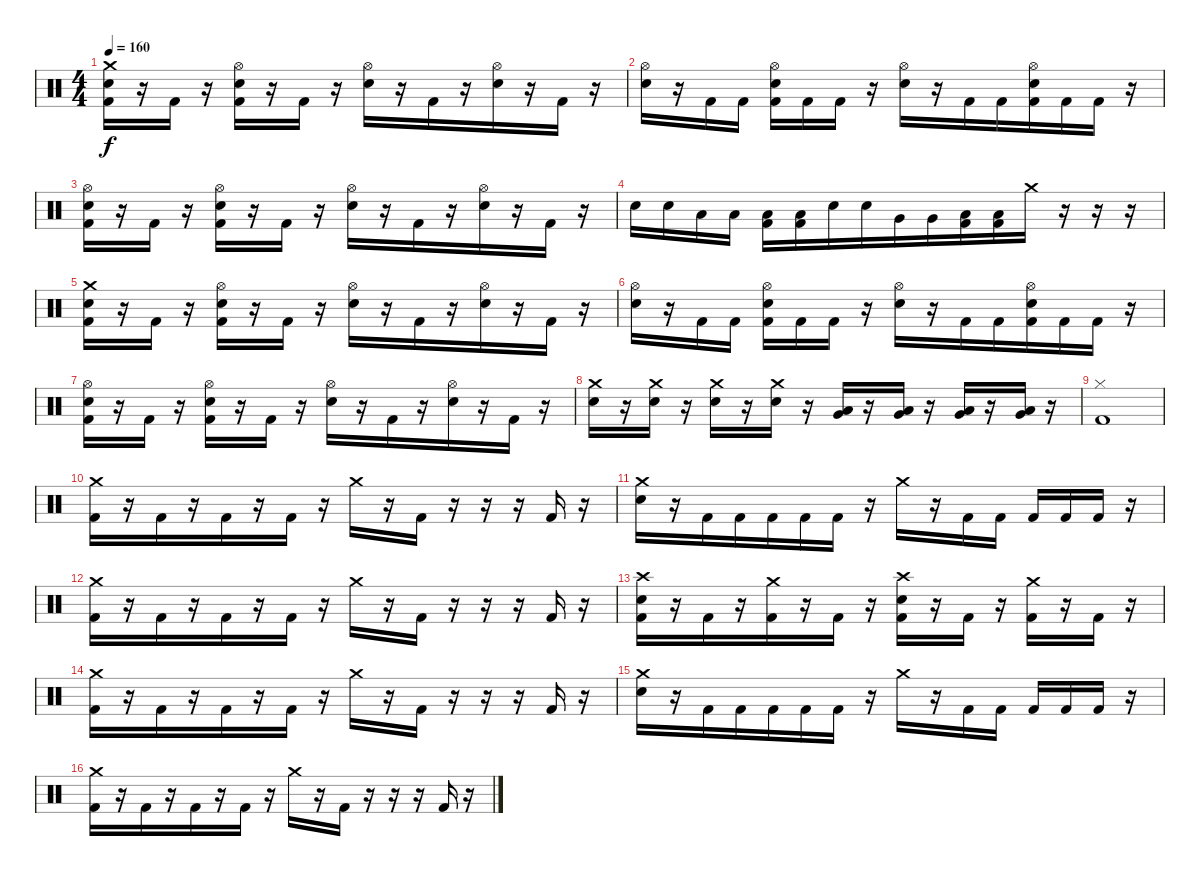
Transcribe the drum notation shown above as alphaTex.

\track "" {instrument percussion}
\staff {score}
\articulation defaults
\ts (4 4)
\tempo 160
\clef neutral
\ks c
("Crash medium (hit)" "Electric Snare (hit)" "Kick (hit) 2").16{dy f} r.16{beam merge} "Kick (hit) 2".16 r.16 ("Hi-Hat (open)" "Electric Snare (hit)" "Kick (hit) 2").16 r.16 "Kick (hit) 2".16 r.16{beam merge} ("Hi-Hat (open)" "Electric Snare (hit)").16 r.16{beam merge} "Kick (hit) 2".16{beam merge} r.16{beam merge} ("Hi-Hat (open)" "Electric Snare (hit)").16 r.16{beam merge} "Kick (hit) 2".16 r.16 |
("Hi-Hat (open)" "Electric Snare (hit)").16 r.16{beam merge} "Kick (hit) 2".16 "Kick (hit) 2".16 ("Hi-Hat (open)" "Electric Snare (hit)" "Kick (hit) 2").16 "Kick (hit) 2".16 "Kick (hit) 2".16 r.16{beam merge} ("Hi-Hat (open)" "Electric Snare (hit)").16 r.16{beam merge} "Kick (hit) 2".16{beam merge} "Kick (hit) 2".16{beam merge} ("Hi-Hat (open)" "Electric Snare (hit)" "Kick (hit) 2").16 "Kick (hit) 2".16{beam merge} "Kick (hit) 2".16 r.16 |
("Hi-Hat (open)" "Electric Snare (hit)" "Kick (hit) 2").16 r.16{beam merge} "Kick (hit) 2".16 r.16 ("Hi-Hat (open)" "Electric Snare (hit)" "Kick (hit) 2").16 r.16 "Kick (hit) 2".16 r.16{beam merge} ("Hi-Hat (open)" "Electric Snare (hit)").16 r.16{beam merge} "Kick (hit) 2".16{beam merge} r.16{beam merge} ("Hi-Hat (open)" "Electric Snare (hit)").16 r.16{beam merge} "Kick (hit) 2".16 r.16 |
"Electric Snare (hit)".16 "Electric Snare (hit)".16{beam merge} "Low Floor Tom (hit)".16 "Low Floor Tom (hit)".16 ("Low Floor Tom (hit)" "Kick (hit) 2").16 ("Low Floor Tom (hit)" "Kick (hit) 2").16 "Electric Snare (hit)".16 "Electric Snare (hit)".16{beam merge} "Very Low Tom (hit)".16 "Very Low Tom (hit)".16{beam merge} ("Low Floor Tom (hit)" "Kick (hit) 2").16{beam merge} ("Low Floor Tom (hit)" "Kick (hit) 2").16{beam merge} "Crash medium (hit)".16 r.16{beam merge} r.16 r.16 |
("Crash medium (hit)" "Electric Snare (hit)" "Kick (hit) 2").16 r.16{beam merge} "Kick (hit) 2".16 r.16 ("Hi-Hat (open)" "Electric Snare (hit)" "Kick (hit) 2").16 r.16 "Kick (hit) 2".16 r.16{beam merge} ("Hi-Hat (open)" "Electric Snare (hit)").16 r.16{beam merge} "Kick (hit) 2".16{beam merge} r.16{beam merge} ("Hi-Hat (open)" "Electric Snare (hit)").16 r.16{beam merge} "Kick (hit) 2".16 r.16 |
("Hi-Hat (open)" "Electric Snare (hit)").16 r.16{beam merge} "Kick (hit) 2".16 "Kick (hit) 2".16 ("Hi-Hat (open)" "Electric Snare (hit)" "Kick (hit) 2").16 "Kick (hit) 2".16 "Kick (hit) 2".16 r.16{beam merge} ("Hi-Hat (open)" "Electric Snare (hit)").16 r.16{beam merge} "Kick (hit) 2".16{beam merge} "Kick (hit) 2".16{beam merge} ("Hi-Hat (open)" "Electric Snare (hit)" "Kick (hit) 2").16 "Kick (hit) 2".16{beam merge} "Kick (hit) 2".16 r.16 |
("Hi-Hat (open)" "Electric Snare (hit)" "Kick (hit) 2").16 r.16{beam merge} "Kick (hit) 2".16 r.16 ("Hi-Hat (open)" "Electric Snare (hit)" "Kick (hit) 2").16 r.16 "Kick (hit) 2".16 r.16{beam merge} ("Hi-Hat (open)" "Electric Snare (hit)").16 r.16{beam merge} "Kick (hit) 2".16{beam merge} r.16{beam merge} ("Hi-Hat (open)" "Electric Snare (hit)").16 r.16{beam merge} "Kick (hit) 2".16 r.16 |
("Crash medium (hit)" "Electric Snare (hit)").16{beam merge} r.16 ("Crash medium (hit)" "Electric Snare (hit)").16 r.16{beam merge} ("Crash medium (hit)" "Electric Snare (hit)").16{beam merge} r.16{beam merge} ("Crash medium (hit)" "Electric Snare (hit)").16 r.16 ("Very Low Tom (hit)" "Low Floor Tom (hit)").16 r.16 ("Very Low Tom (hit)" "Low Floor Tom (hit)").16 r.16{beam merge} ("Very Low Tom (hit)" "Low Floor Tom (hit)").16 r.16 ("Very Low Tom (hit)" "Low Floor Tom (hit)").16 r.16 |
("Hi-Hat (closed)" "Kick (hit) 2").1 |
("Crash medium (hit)" "Kick (hit) 2").16 r.16 "Kick (hit) 2".16{beam merge} r.16{beam merge} "Kick (hit) 2".16 r.16 "Kick (hit) 2".16 r.16 "Crash medium (hit)".16{beam merge} r.16 "Kick (hit) 2".16 r.16 r.16 r.16 "Kick (hit) 2".16 r.16 |
("Crash medium (hit)" "Electric Snare (hit)").16 r.16 "Kick (hit) 2".16{beam merge} "Kick (hit) 2".16{beam merge} "Kick (hit) 2".16 "Kick (hit) 2".16 "Kick (hit) 2".16 r.16 "Crash medium (hit)".16{beam merge} r.16 "Kick (hit) 2".16 "Kick (hit) 2".16 "Kick (hit) 2".16 "Kick (hit) 2".16 "Kick (hit) 2".16 r.16 |
("Crash medium (hit)" "Kick (hit) 2").16 r.16 "Kick (hit) 2".16{beam merge} r.16{beam merge} "Kick (hit) 2".16 r.16 "Kick (hit) 2".16 r.16 "Crash medium (hit)".16{beam merge} r.16 "Kick (hit) 2".16 r.16 r.16 r.16 "Kick (hit) 2".16 r.16 |
("Crash high (hit)" "Electric Snare (hit)" "Kick (hit) 2").16 r.16 "Kick (hit) 2".16{beam merge} r.16{beam merge} ("Crash medium (hit)" "Kick (hit) 2").16 r.16 "Kick (hit) 2".16 r.16 ("Crash high (hit)" "Electric Snare (hit)" "Kick (hit) 2").16{beam merge} r.16 "Kick (hit) 2".16 r.16 ("Crash medium (hit)" "Kick (hit) 2").16 r.16 "Kick (hit) 2".16 r.16 |
("Crash medium (hit)" "Kick (hit) 2").16 r.16 "Kick (hit) 2".16{beam merge} r.16{beam merge} "Kick (hit) 2".16 r.16 "Kick (hit) 2".16 r.16 "Crash medium (hit)".16{beam merge} r.16 "Kick (hit) 2".16 r.16 r.16 r.16 "Kick (hit) 2".16 r.16 |
("Crash medium (hit)" "Electric Snare (hit)").16 r.16 "Kick (hit) 2".16{beam merge} "Kick (hit) 2".16{beam merge} "Kick (hit) 2".16 "Kick (hit) 2".16 "Kick (hit) 2".16 r.16 "Crash medium (hit)".16{beam merge} r.16 "Kick (hit) 2".16 "Kick (hit) 2".16 "Kick (hit) 2".16 "Kick (hit) 2".16 "Kick (hit) 2".16 r.16 |
("Crash medium (hit)" "Kick (hit) 2").16 r.16 "Kick (hit) 2".16{beam merge} r.16{beam merge} "Kick (hit) 2".16 r.16 "Kick (hit) 2".16 r.16 "Crash medium (hit)".16{beam merge} r.16 "Kick (hit) 2".16 r.16 r.16 r.16 "Kick (hit) 2".16 r.16
